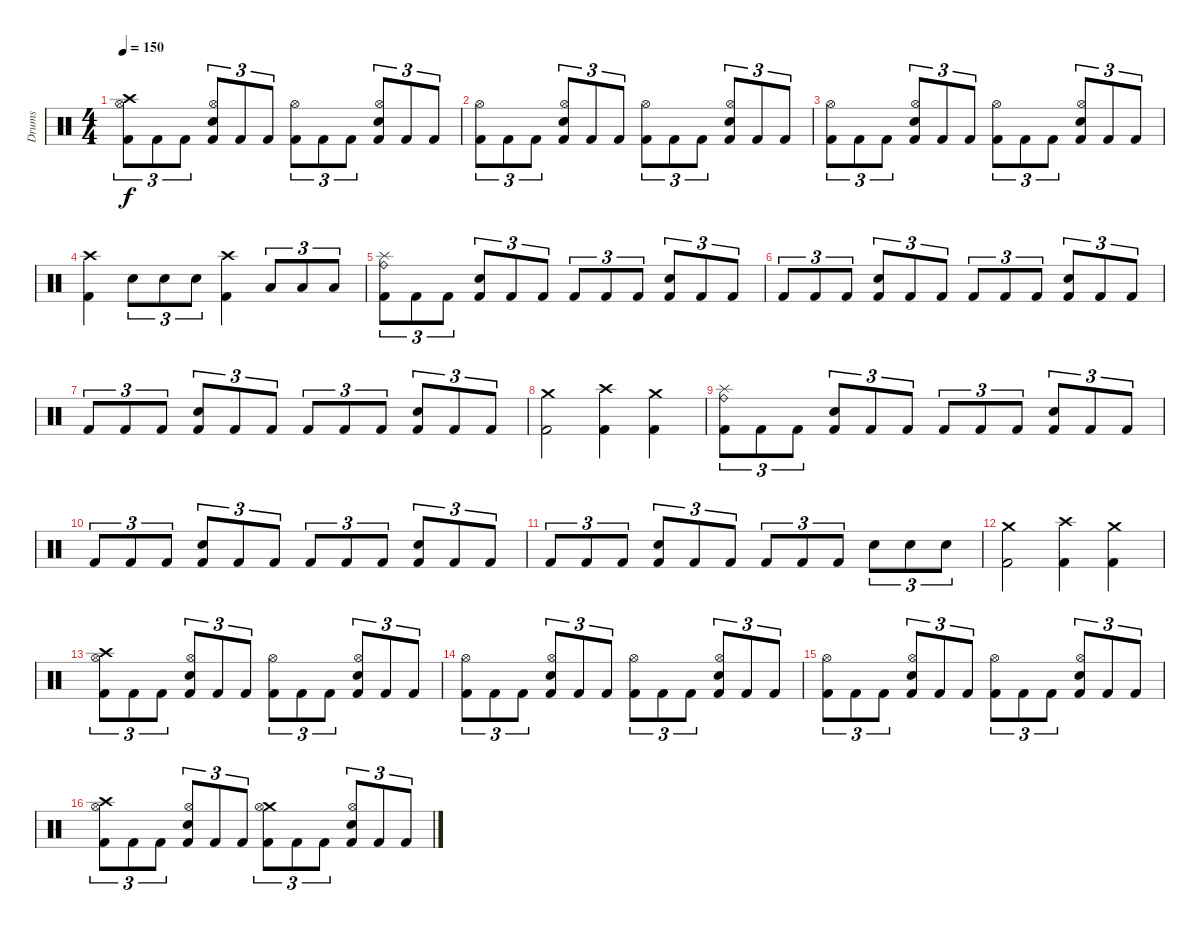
\track ("Drums" "Drums") {instrument percussion}
\staff {score}
\articulation defaults
\ts (4 4)
\tempo 150
\clef neutral
\ks c
("Kick (hit) 2" "Crash high (hit)" "Hi-Hat (open)").8{tu (3 2) dy f} "Kick (hit) 2".8{tu (3 2)} "Kick (hit) 2".8{tu (3 2)} ("Kick (hit) 2" "Electric Snare (hit)" "Hi-Hat (open)").8{tu (3 2)} "Kick (hit) 2".8{tu (3 2)} "Kick (hit) 2".8{tu (3 2)} ("Kick (hit) 2" "Hi-Hat (open)").8{tu (3 2)} "Kick (hit) 2".8{tu (3 2)} "Kick (hit) 2".8{tu (3 2)} ("Kick (hit) 2" "Electric Snare (hit)" "Hi-Hat (open)").8{tu (3 2)} "Kick (hit) 2".8{tu (3 2)} "Kick (hit) 2".8{tu (3 2)} |
("Kick (hit) 2" "Hi-Hat (open)").8{tu (3 2)} "Kick (hit) 2".8{tu (3 2)} "Kick (hit) 2".8{tu (3 2)} ("Kick (hit) 2" "Electric Snare (hit)" "Hi-Hat (open)").8{tu (3 2)} "Kick (hit) 2".8{tu (3 2)} "Kick (hit) 2".8{tu (3 2)} ("Kick (hit) 2" "Hi-Hat (open)").8{tu (3 2)} "Kick (hit) 2".8{tu (3 2)} "Kick (hit) 2".8{tu (3 2)} ("Kick (hit) 2" "Electric Snare (hit)" "Hi-Hat (open)").8{tu (3 2)} "Kick (hit) 2".8{tu (3 2)} "Kick (hit) 2".8{tu (3 2)} |
("Kick (hit) 2" "Hi-Hat (open)").8{tu (3 2)} "Kick (hit) 2".8{tu (3 2)} "Kick (hit) 2".8{tu (3 2)} ("Kick (hit) 2" "Electric Snare (hit)" "Hi-Hat (open)").8{tu (3 2)} "Kick (hit) 2".8{tu (3 2)} "Kick (hit) 2".8{tu (3 2)} ("Kick (hit) 2" "Hi-Hat (open)").8{tu (3 2)} "Kick (hit) 2".8{tu (3 2)} "Kick (hit) 2".8{tu (3 2)} ("Kick (hit) 2" "Electric Snare (hit)" "Hi-Hat (open)").8{tu (3 2)} "Kick (hit) 2".8{tu (3 2)} "Kick (hit) 2".8{tu (3 2)} |
("Kick (hit) 2" "Crash high (hit)").4 "Electric Snare (hit)".8{tu (3 2)} "Electric Snare (hit)".8{tu (3 2)} "Electric Snare (hit)".8{tu (3 2)} ("Kick (hit) 2" "Crash high (hit)").4 "Low Tom (hit)".8{tu (3 2)} "Low Tom (hit)".8{tu (3 2)} "Low Tom (hit)".8{tu (3 2)} |
("Kick (hit) 2" "Ride (bell)" "Splash (hit)").8{tu (3 2)} "Kick (hit) 2".8{tu (3 2)} "Kick (hit) 2".8{tu (3 2)} ("Kick (hit) 2" "Electric Snare (hit)").8{tu (3 2)} "Kick (hit) 2".8{tu (3 2)} "Kick (hit) 2".8{tu (3 2)} "Kick (hit) 2".8{tu (3 2)} "Kick (hit) 2".8{tu (3 2)} "Kick (hit) 2".8{tu (3 2)} ("Kick (hit) 2" "Electric Snare (hit)").8{tu (3 2)} "Kick (hit) 2".8{tu (3 2)} "Kick (hit) 2".8{tu (3 2)} |
"Kick (hit) 2".8{tu (3 2)} "Kick (hit) 2".8{tu (3 2)} "Kick (hit) 2".8{tu (3 2)} ("Kick (hit) 2" "Electric Snare (hit)").8{tu (3 2)} "Kick (hit) 2".8{tu (3 2)} "Kick (hit) 2".8{tu (3 2)} "Kick (hit) 2".8{tu (3 2)} "Kick (hit) 2".8{tu (3 2)} "Kick (hit) 2".8{tu (3 2)} ("Kick (hit) 2" "Electric Snare (hit)").8{tu (3 2)} "Kick (hit) 2".8{tu (3 2)} "Kick (hit) 2".8{tu (3 2)} |
"Kick (hit) 2".8{tu (3 2)} "Kick (hit) 2".8{tu (3 2)} "Kick (hit) 2".8{tu (3 2)} ("Kick (hit) 2" "Electric Snare (hit)").8{tu (3 2)} "Kick (hit) 2".8{tu (3 2)} "Kick (hit) 2".8{tu (3 2)} "Kick (hit) 2".8{tu (3 2)} "Kick (hit) 2".8{tu (3 2)} "Kick (hit) 2".8{tu (3 2)} ("Kick (hit) 2" "Electric Snare (hit)").8{tu (3 2)} "Kick (hit) 2".8{tu (3 2)} "Kick (hit) 2".8{tu (3 2)} |
("Kick (hit) 2" "Crash medium (hit)").2 ("Kick (hit) 2" "Crash high (hit)").4 ("Kick (hit) 2" "Crash medium (hit)").4 |
("Kick (hit) 2" "Ride (bell)" "Splash (hit)").8{tu (3 2)} "Kick (hit) 2".8{tu (3 2)} "Kick (hit) 2".8{tu (3 2)} ("Kick (hit) 2" "Electric Snare (hit)").8{tu (3 2)} "Kick (hit) 2".8{tu (3 2)} "Kick (hit) 2".8{tu (3 2)} "Kick (hit) 2".8{tu (3 2)} "Kick (hit) 2".8{tu (3 2)} "Kick (hit) 2".8{tu (3 2)} ("Kick (hit) 2" "Electric Snare (hit)").8{tu (3 2)} "Kick (hit) 2".8{tu (3 2)} "Kick (hit) 2".8{tu (3 2)} |
"Kick (hit) 2".8{tu (3 2)} "Kick (hit) 2".8{tu (3 2)} "Kick (hit) 2".8{tu (3 2)} ("Kick (hit) 2" "Electric Snare (hit)").8{tu (3 2)} "Kick (hit) 2".8{tu (3 2)} "Kick (hit) 2".8{tu (3 2)} "Kick (hit) 2".8{tu (3 2)} "Kick (hit) 2".8{tu (3 2)} "Kick (hit) 2".8{tu (3 2)} ("Kick (hit) 2" "Electric Snare (hit)").8{tu (3 2)} "Kick (hit) 2".8{tu (3 2)} "Kick (hit) 2".8{tu (3 2)} |
"Kick (hit) 2".8{tu (3 2)} "Kick (hit) 2".8{tu (3 2)} "Kick (hit) 2".8{tu (3 2)} ("Kick (hit) 2" "Electric Snare (hit)").8{tu (3 2)} "Kick (hit) 2".8{tu (3 2)} "Kick (hit) 2".8{tu (3 2)} "Kick (hit) 2".8{tu (3 2)} "Kick (hit) 2".8{tu (3 2)} "Kick (hit) 2".8{tu (3 2)} "Electric Snare (hit)".8{tu (3 2)} "Electric Snare (hit)".8{tu (3 2)} "Electric Snare (hit)".8{tu (3 2)} |
("Kick (hit) 2" "Crash medium (hit)").2 ("Kick (hit) 2" "Crash high (hit)").4 ("Kick (hit) 2" "Crash medium (hit)").4 |
("Kick (hit) 2" "Crash high (hit)" "Hi-Hat (open)").8{tu (3 2)} "Kick (hit) 2".8{tu (3 2)} "Kick (hit) 2".8{tu (3 2)} ("Kick (hit) 2" "Electric Snare (hit)" "Hi-Hat (open)").8{tu (3 2)} "Kick (hit) 2".8{tu (3 2)} "Kick (hit) 2".8{tu (3 2)} ("Kick (hit) 2" "Hi-Hat (open)").8{tu (3 2)} "Kick (hit) 2".8{tu (3 2)} "Kick (hit) 2".8{tu (3 2)} ("Kick (hit) 2" "Electric Snare (hit)" "Hi-Hat (open)").8{tu (3 2)} "Kick (hit) 2".8{tu (3 2)} "Kick (hit) 2".8{tu (3 2)} |
("Kick (hit) 2" "Hi-Hat (open)").8{tu (3 2)} "Kick (hit) 2".8{tu (3 2)} "Kick (hit) 2".8{tu (3 2)} ("Kick (hit) 2" "Electric Snare (hit)" "Hi-Hat (open)").8{tu (3 2)} "Kick (hit) 2".8{tu (3 2)} "Kick (hit) 2".8{tu (3 2)} ("Kick (hit) 2" "Hi-Hat (open)").8{tu (3 2)} "Kick (hit) 2".8{tu (3 2)} "Kick (hit) 2".8{tu (3 2)} ("Kick (hit) 2" "Electric Snare (hit)" "Hi-Hat (open)").8{tu (3 2)} "Kick (hit) 2".8{tu (3 2)} "Kick (hit) 2".8{tu (3 2)} |
("Kick (hit) 2" "Hi-Hat (open)").8{tu (3 2)} "Kick (hit) 2".8{tu (3 2)} "Kick (hit) 2".8{tu (3 2)} ("Kick (hit) 2" "Electric Snare (hit)" "Hi-Hat (open)").8{tu (3 2)} "Kick (hit) 2".8{tu (3 2)} "Kick (hit) 2".8{tu (3 2)} ("Kick (hit) 2" "Hi-Hat (open)").8{tu (3 2)} "Kick (hit) 2".8{tu (3 2)} "Kick (hit) 2".8{tu (3 2)} ("Kick (hit) 2" "Electric Snare (hit)" "Hi-Hat (open)").8{tu (3 2)} "Kick (hit) 2".8{tu (3 2)} "Kick (hit) 2".8{tu (3 2)} |
("Kick (hit) 2" "Crash high (hit)" "Hi-Hat (open)").8{tu (3 2)} "Kick (hit) 2".8{tu (3 2)} "Kick (hit) 2".8{tu (3 2)} ("Kick (hit) 2" "Electric Snare (hit)" "Hi-Hat (open)").8{tu (3 2)} "Kick (hit) 2".8{tu (3 2)} "Kick (hit) 2".8{tu (3 2)} ("Kick (hit) 2" "Crash medium (hit)" "Hi-Hat (open)").8{tu (3 2)} "Kick (hit) 2".8{tu (3 2)} "Kick (hit) 2".8{tu (3 2)} ("Kick (hit) 2" "Electric Snare (hit)" "Hi-Hat (open)").8{tu (3 2)} "Kick (hit) 2".8{tu (3 2)} "Kick (hit) 2".8{tu (3 2)}
